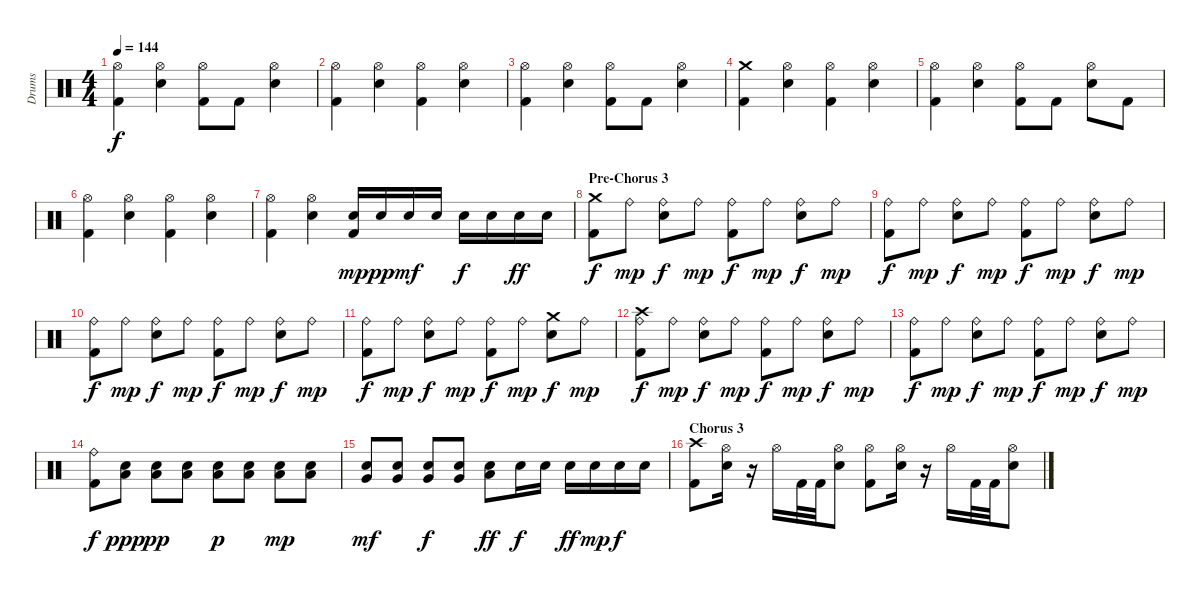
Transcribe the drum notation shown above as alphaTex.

\track ("Drums" "Drums") {instrument percussion}
\staff {score}
\articulation defaults
\ts (4 4)
\tempo 144
\clef neutral
\ks c
("Kick (hit) 2" "Hi-Hat (open)").4{dy f} ("Electric Snare (hit)" "Hi-Hat (open)").4 ("Kick (hit) 2" "Hi-Hat (open)").8 "Kick (hit) 2".8 ("Electric Snare (hit)" "Hi-Hat (open)").4 |
("Kick (hit) 2" "Hi-Hat (open)").4 ("Electric Snare (hit)" "Hi-Hat (open)").4 ("Kick (hit) 2" "Hi-Hat (open)").4 ("Electric Snare (hit)" "Hi-Hat (open)").4 |
("Kick (hit) 2" "Hi-Hat (open)").4 ("Electric Snare (hit)" "Hi-Hat (open)").4 ("Kick (hit) 2" "Hi-Hat (open)").8 "Kick (hit) 2".8 ("Electric Snare (hit)" "Hi-Hat (open)").4 |
("Kick (hit) 2" "Crash medium (hit)").4 ("Electric Snare (hit)" "Hi-Hat (open)").4 ("Kick (hit) 2" "Hi-Hat (open)").4 ("Electric Snare (hit)" "Hi-Hat (open)").4 |
("Kick (hit) 2" "Hi-Hat (open)").4 ("Electric Snare (hit)" "Hi-Hat (open)").4 ("Kick (hit) 2" "Hi-Hat (open)").8 "Kick (hit) 2".8 ("Electric Snare (hit)" "Hi-Hat (open)").8 "Kick (hit) 2".8 |
("Kick (hit) 2" "Hi-Hat (open)").4 ("Electric Snare (hit)" "Hi-Hat (open)").4 ("Kick (hit) 2" "Hi-Hat (open)").4 ("Electric Snare (hit)" "Hi-Hat (open)").4 |
("Kick (hit) 2" "Hi-Hat (open)").4 ("Electric Snare (hit)" "Hi-Hat (open)").4 ("Kick (hit) 2" "Electric Snare (hit)").16{dy mp} "Electric Snare (hit)".16{dy pp} "Electric Snare (hit)".16{dy mf} "Electric Snare (hit)".16 "Electric Snare (hit)".16{dy f} "Electric Snare (hit)".16 "Electric Snare (hit)".16{dy ff} "Electric Snare (hit)".16 |
\section ("" "Pre-Chorus 3")
("Kick (hit) 2" "Crash medium (hit)").8{dy f} "Ride (bell)".8{dy mp} ("Electric Snare (hit)" "Ride (bell)").8{dy f} "Ride (bell)".8{dy mp} ("Kick (hit) 2" "Ride (bell)").8{dy f} "Ride (bell)".8{dy mp} ("Electric Snare (hit)" "Ride (bell)").8{dy f} "Ride (bell)".8{dy mp} |
("Kick (hit) 2" "Ride (bell)").8{dy f} "Ride (bell)".8{dy mp} ("Electric Snare (hit)" "Ride (bell)").8{dy f} "Ride (bell)".8{dy mp} ("Kick (hit) 2" "Ride (bell)").8{dy f} "Ride (bell)".8{dy mp} ("Electric Snare (hit)" "Ride (bell)").8{dy f} "Ride (bell)".8{dy mp} |
("Kick (hit) 2" "Ride (bell)").8{dy f} "Ride (bell)".8{dy mp} ("Electric Snare (hit)" "Ride (bell)").8{dy f} "Ride (bell)".8{dy mp} ("Kick (hit) 2" "Ride (bell)").8{dy f} "Ride (bell)".8{dy mp} ("Electric Snare (hit)" "Ride (bell)").8{dy f} "Ride (bell)".8{dy mp} |
("Kick (hit) 2" "Ride (bell)").8{dy f} "Ride (bell)".8{dy mp} ("Electric Snare (hit)" "Ride (bell)").8{dy f} "Ride (bell)".8{dy mp} ("Kick (hit) 2" "Ride (bell)").8{dy f} "Ride (bell)".8{dy mp} ("Electric Snare (hit)" "Crash medium (hit)").8{dy f} "Ride (bell)".8{dy mp} |
("Kick (hit) 2" "Ride (bell)" "Crash high (hit)").8{dy f} "Ride (bell)".8{dy mp} ("Electric Snare (hit)" "Ride (bell)").8{dy f} "Ride (bell)".8{dy mp} ("Kick (hit) 2" "Ride (bell)").8{dy f} "Ride (bell)".8{dy mp} ("Electric Snare (hit)" "Ride (bell)").8{dy f} "Ride (bell)".8{dy mp} |
("Kick (hit) 2" "Ride (bell)").8{dy f} "Ride (bell)".8{dy mp} ("Electric Snare (hit)" "Ride (bell)").8{dy f} "Ride (bell)".8{dy mp} ("Kick (hit) 2" "Ride (bell)").8{dy f} "Ride (bell)".8{dy mp} ("Electric Snare (hit)" "Ride (bell)").8{dy f} "Ride (bell)".8{dy mp} |
("Kick (hit) 2" "Ride (bell)").8{dy f} ("Low Floor Tom (hit)" "Electric Snare (hit)").8{dy ppp} ("Low Floor Tom (hit)" "Electric Snare (hit)").8{dy pp} ("Low Floor Tom (hit)" "Electric Snare (hit)").8 ("Low Floor Tom (hit)" "Electric Snare (hit)").8{dy p} ("Low Floor Tom (hit)" "Electric Snare (hit)").8 ("Low Floor Tom (hit)" "Electric Snare (hit)").8{dy mp} ("Low Floor Tom (hit)" "Electric Snare (hit)").8 |
("Very Low Tom (hit)" "Electric Snare (hit)").8{dy mf} ("Very Low Tom (hit)" "Electric Snare (hit)").8 ("Very Low Tom (hit)" "Electric Snare (hit)").8{dy f} ("Very Low Tom (hit)" "Electric Snare (hit)").8 ("Low Tom (hit)" "Electric Snare (hit)").8{dy ff} "Electric Snare (hit)".16{dy f} "Electric Snare (hit)".16 "Electric Snare (hit)".16{dy ff} "Electric Snare (hit)".16{dy mp} "Electric Snare (hit)".16{dy f} "Electric Snare (hit)".16 |
\section ("" "Chorus 3")
("Kick (hit) 2" "Crash high (hit)").8 ("Electric Snare (hit)" "Hi-Hat (open)").16 r.16 "Hi-Hat (open)".16 "Kick (hit) 2".32 "Kick (hit) 2".32 ("Electric Snare (hit)" "Hi-Hat (open)").8 ("Kick (hit) 2" "Hi-Hat (open)").8 ("Electric Snare (hit)" "Hi-Hat (open)").16 r.16 "Hi-Hat (open)".16 "Kick (hit) 2".32 "Kick (hit) 2".32 ("Electric Snare (hit)" "Hi-Hat (open)").8
